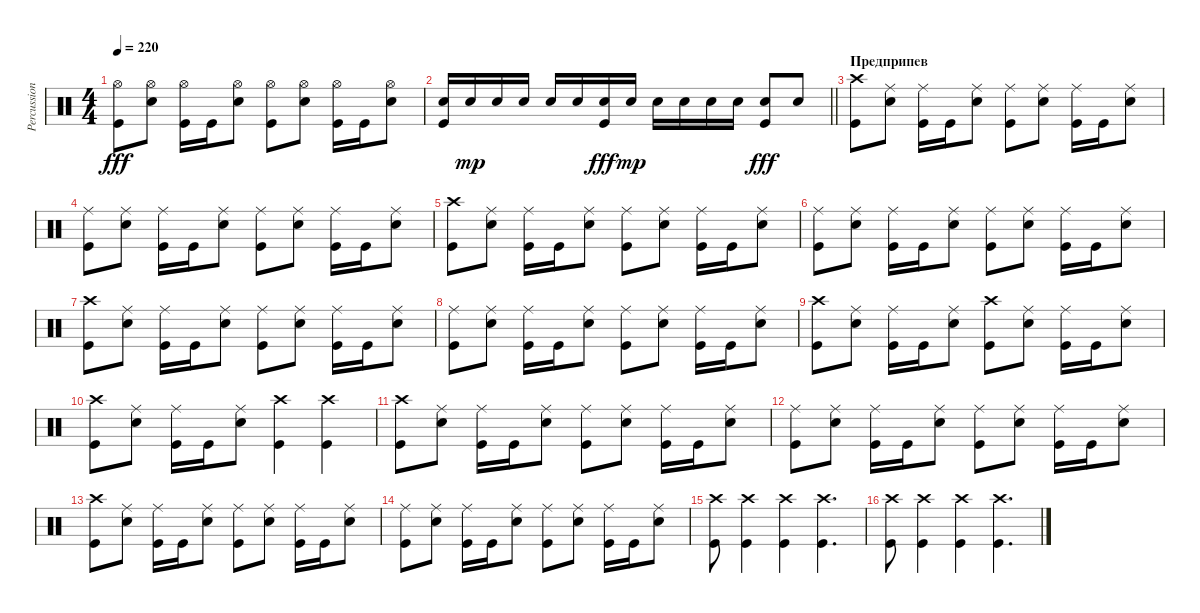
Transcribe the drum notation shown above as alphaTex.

\track ("Percussion" "Percussion") {instrument percussion}
\staff {score}
\articulation defaults
\ts (4 4)
\tempo 220
\clef neutral
\ks c
("Hi-Hat (open)" "Kick (hit)").8{dy fff} ("Hi-Hat (open)" "Snare (hit) 2").8 ("Hi-Hat (open)" "Kick (hit)").16 "Kick (hit)".16 ("Hi-Hat (open)" "Snare (hit) 2").8 ("Hi-Hat (open)" "Kick (hit)").8 ("Hi-Hat (open)" "Snare (hit) 2").8 ("Hi-Hat (open)" "Kick (hit)").16 "Kick (hit)".16 ("Hi-Hat (open)" "Snare (hit) 2").8 |
\barLineRight lightlight
("Snare (hit) 2" "Kick (hit)").16 "Snare (hit) 2".16{dy mp} "Snare (hit) 2".16 "Snare (hit) 2".16 "Snare (hit) 2".16 "Snare (hit) 2".16 ("Snare (hit) 2" "Kick (hit)").16{dy fff} "Snare (hit) 2".16{dy mp} "Snare (hit) 2".16 "Snare (hit) 2".16 "Snare (hit) 2".16 "Snare (hit) 2".16 ("Snare (hit) 2" "Kick (hit)").8{dy fff} "Snare (hit) 2".8 |
\section ("" "Предприпев")
("Crash high (hit)" "Kick (hit)").8 ("Ride (middle)" "Snare (hit) 2").8 ("Ride (middle)" "Kick (hit)").16 "Kick (hit)".16 ("Ride (middle)" "Snare (hit) 2").8 ("Ride (middle)" "Kick (hit)").8 ("Ride (middle)" "Snare (hit) 2").8 ("Ride (middle)" "Kick (hit)").16 "Kick (hit)".16 ("Ride (middle)" "Snare (hit) 2").8 |
("Ride (middle)" "Kick (hit)").8 ("Ride (middle)" "Snare (hit) 2").8 ("Ride (middle)" "Kick (hit)").16 "Kick (hit)".16 ("Ride (middle)" "Snare (hit) 2").8 ("Ride (middle)" "Kick (hit)").8 ("Ride (middle)" "Snare (hit) 2").8 ("Ride (middle)" "Kick (hit)").16 "Kick (hit)".16 ("Ride (middle)" "Snare (hit) 2").8 |
("Crash high (hit)" "Kick (hit)").8 ("Ride (middle)" "Snare (hit) 2").8 ("Ride (middle)" "Kick (hit)").16 "Kick (hit)".16 ("Ride (middle)" "Snare (hit) 2").8 ("Ride (middle)" "Kick (hit)").8 ("Ride (middle)" "Snare (hit) 2").8 ("Ride (middle)" "Kick (hit)").16 "Kick (hit)".16 ("Ride (middle)" "Snare (hit) 2").8 |
("Ride (middle)" "Kick (hit)").8 ("Ride (middle)" "Snare (hit) 2").8 ("Ride (middle)" "Kick (hit)").16 "Kick (hit)".16 ("Ride (middle)" "Snare (hit) 2").8 ("Ride (middle)" "Kick (hit)").8 ("Ride (middle)" "Snare (hit) 2").8 ("Ride (middle)" "Kick (hit)").16 "Kick (hit)".16 ("Ride (middle)" "Snare (hit) 2").8 |
("Crash high (hit)" "Kick (hit)").8 ("Ride (middle)" "Snare (hit) 2").8 ("Ride (middle)" "Kick (hit)").16 "Kick (hit)".16 ("Ride (middle)" "Snare (hit) 2").8 ("Ride (middle)" "Kick (hit)").8 ("Ride (middle)" "Snare (hit) 2").8 ("Ride (middle)" "Kick (hit)").16 "Kick (hit)".16 ("Ride (middle)" "Snare (hit) 2").8 |
("Ride (middle)" "Kick (hit)").8 ("Ride (middle)" "Snare (hit) 2").8 ("Ride (middle)" "Kick (hit)").16 "Kick (hit)".16 ("Ride (middle)" "Snare (hit) 2").8 ("Ride (middle)" "Kick (hit)").8 ("Ride (middle)" "Snare (hit) 2").8 ("Ride (middle)" "Kick (hit)").16 "Kick (hit)".16 ("Ride (middle)" "Snare (hit) 2").8 |
("Crash high (hit)" "Kick (hit)").8 ("Ride (middle)" "Snare (hit) 2").8 ("Ride (middle)" "Kick (hit)").16 "Kick (hit)".16 ("Ride (middle)" "Snare (hit) 2").8 ("Crash high (hit)" "Kick (hit)").8 ("Ride (middle)" "Snare (hit) 2").8 ("Ride (middle)" "Kick (hit)").16 "Kick (hit)".16 ("Ride (middle)" "Snare (hit) 2").8 |
("Crash high (hit)" "Kick (hit)").8 ("Ride (middle)" "Snare (hit) 2").8 ("Ride (middle)" "Kick (hit)").16 "Kick (hit)".16 ("Ride (middle)" "Snare (hit) 2").8 ("Crash high (hit)" "Kick (hit)").4 ("Crash high (hit)" "Kick (hit)").4 |
("Crash high (hit)" "Kick (hit)").8 ("Ride (middle)" "Snare (hit) 2").8 ("Ride (middle)" "Kick (hit)").16 "Kick (hit)".16 ("Ride (middle)" "Snare (hit) 2").8 ("Ride (middle)" "Kick (hit)").8 ("Ride (middle)" "Snare (hit) 2").8 ("Ride (middle)" "Kick (hit)").16 "Kick (hit)".16 ("Ride (middle)" "Snare (hit) 2").8 |
("Ride (middle)" "Kick (hit)").8 ("Ride (middle)" "Snare (hit) 2").8 ("Ride (middle)" "Kick (hit)").16 "Kick (hit)".16 ("Ride (middle)" "Snare (hit) 2").8 ("Ride (middle)" "Kick (hit)").8 ("Ride (middle)" "Snare (hit) 2").8 ("Ride (middle)" "Kick (hit)").16 "Kick (hit)".16 ("Ride (middle)" "Snare (hit) 2").8 |
("Crash high (hit)" "Kick (hit)").8 ("Ride (middle)" "Snare (hit) 2").8 ("Ride (middle)" "Kick (hit)").16 "Kick (hit)".16 ("Ride (middle)" "Snare (hit) 2").8 ("Ride (middle)" "Kick (hit)").8 ("Ride (middle)" "Snare (hit) 2").8 ("Ride (middle)" "Kick (hit)").16 "Kick (hit)".16 ("Ride (middle)" "Snare (hit) 2").8 |
("Ride (middle)" "Kick (hit)").8 ("Ride (middle)" "Snare (hit) 2").8 ("Ride (middle)" "Kick (hit)").16 "Kick (hit)".16 ("Ride (middle)" "Snare (hit) 2").8 ("Ride (middle)" "Kick (hit)").8 ("Ride (middle)" "Snare (hit) 2").8 ("Ride (middle)" "Kick (hit)").16 "Kick (hit)".16 ("Ride (middle)" "Snare (hit) 2").8 |
("Kick (hit)" "Crash high (hit)").8 ("Kick (hit)" "Crash high (hit)").4 ("Kick (hit)" "Crash high (hit)").4 ("Kick (hit)" "Crash high (hit)").4{d} |
("Kick (hit)" "Crash high (hit)").8 ("Kick (hit)" "Crash high (hit)").4 ("Kick (hit)" "Crash high (hit)").4 ("Kick (hit)" "Crash high (hit)").4{d}
